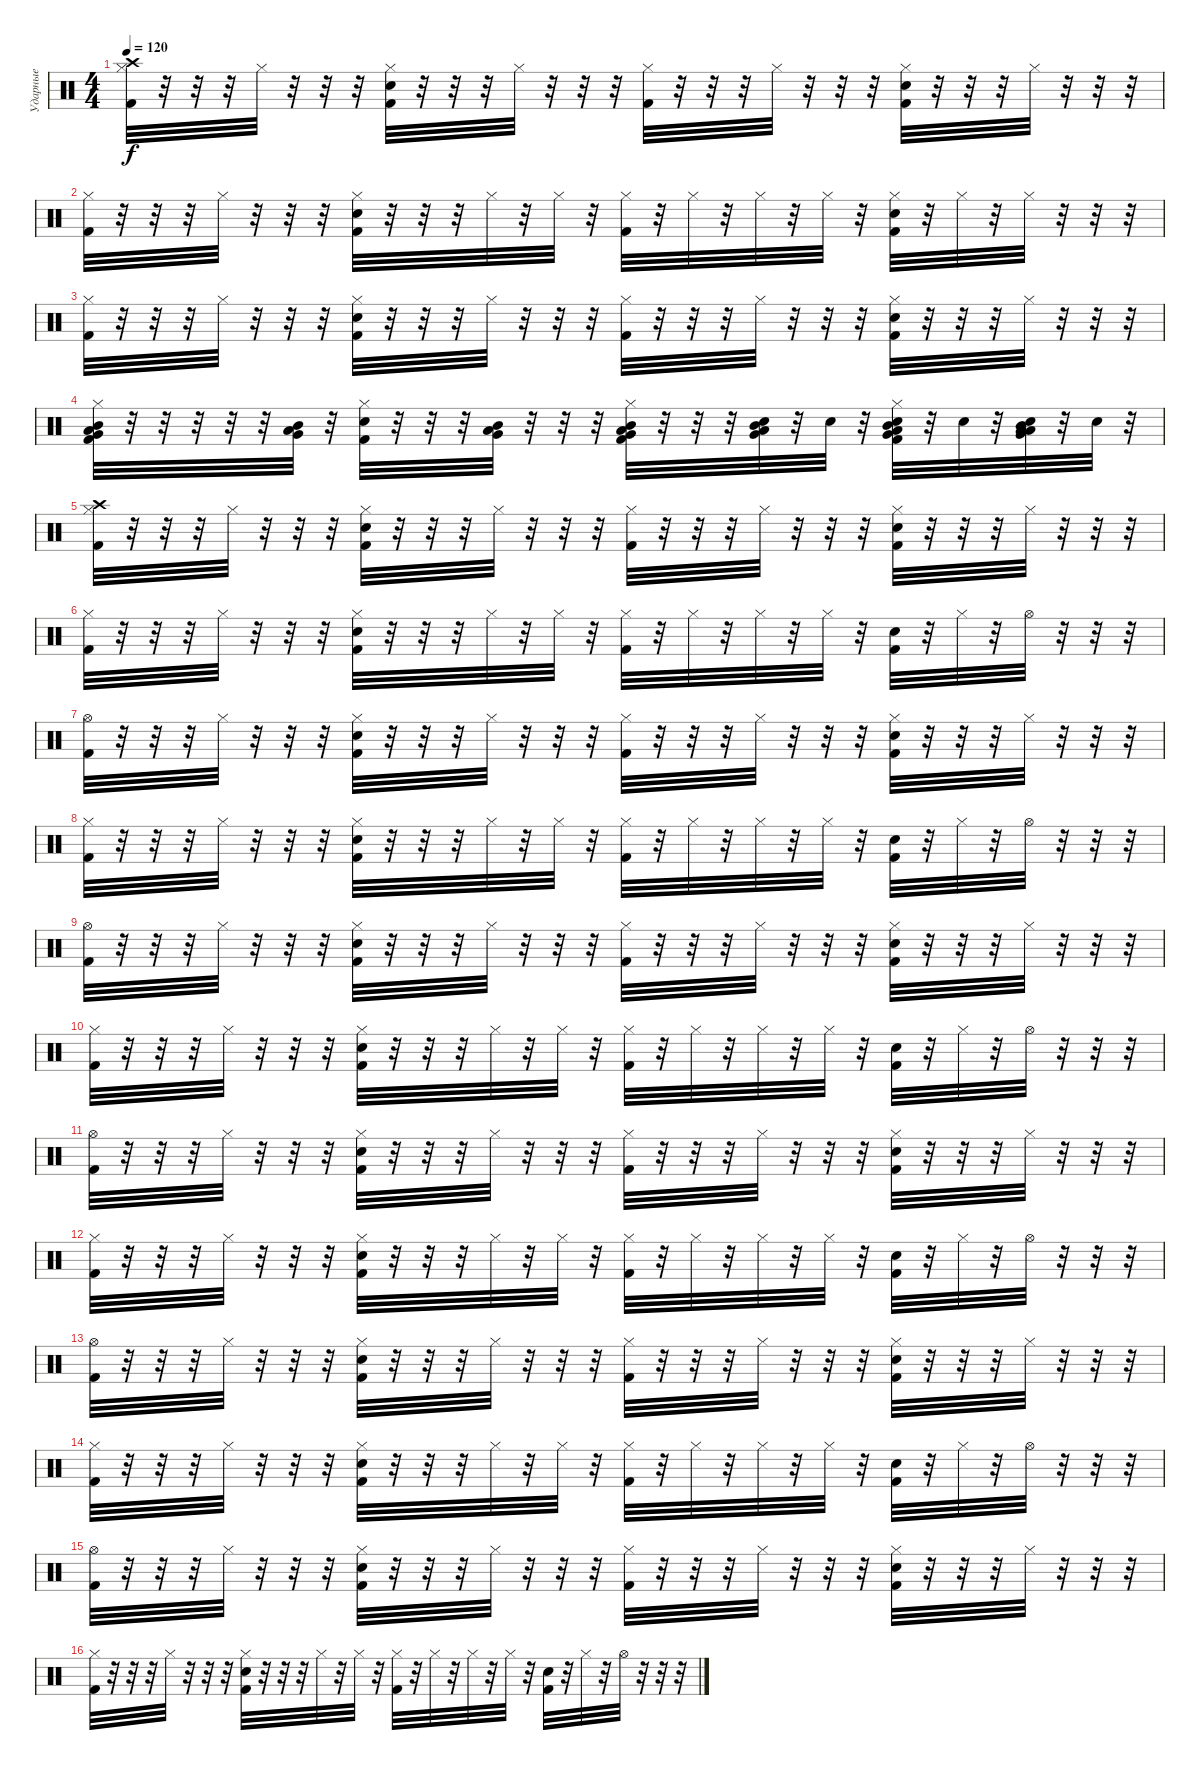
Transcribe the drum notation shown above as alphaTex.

\track ("Ударные" "Ударные") {instrument percussion}
\staff {score}
\articulation defaults
\ts (4 4)
\tempo 120
\clef neutral
\ks c
("Crash high (hit)" "Hi-Hat (closed)" "Kick (hit) 2").32{dy f} r.32 r.32 r.32 "Hi-Hat (closed)".32 r.32 r.32 r.32 ("Hi-Hat (closed)" "Kick (hit) 2" "Snare (hit) 2").32 r.32 r.32 r.32 "Hi-Hat (closed)".32 r.32 r.32 r.32 ("Hi-Hat (closed)" "Kick (hit) 2").32 r.32 r.32 r.32 "Hi-Hat (closed)".32 r.32 r.32 r.32 ("Snare (hit) 2" "Kick (hit) 2" "Hi-Hat (closed)").32 r.32 r.32 r.32 "Hi-Hat (closed)".32 r.32 r.32 r.32 |
("Hi-Hat (closed)" "Kick (hit) 2").32 r.32 r.32 r.32 "Hi-Hat (closed)".32 r.32 r.32 r.32 ("Hi-Hat (closed)" "Kick (hit) 2" "Snare (hit) 2").32 r.32 r.32 r.32 "Hi-Hat (closed)".32 r.32 "Hi-Hat (closed)".32 r.32 ("Hi-Hat (closed)" "Kick (hit) 2").32 r.32 "Hi-Hat (closed)".32 r.32 "Hi-Hat (closed)".32 r.32 "Hi-Hat (closed)".32 r.32 ("Snare (hit) 2" "Kick (hit) 2" "Hi-Hat (closed)").32 r.32 "Hi-Hat (closed)".32 r.32 "Hi-Hat (closed)".32 r.32 r.32 r.32 |
("Hi-Hat (closed)" "Kick (hit) 2").32 r.32 r.32 r.32 "Hi-Hat (closed)".32 r.32 r.32 r.32 ("Hi-Hat (closed)" "Kick (hit) 2" "Snare (hit) 2").32 r.32 r.32 r.32 "Hi-Hat (closed)".32 r.32 r.32 r.32 ("Hi-Hat (closed)" "Kick (hit) 2").32 r.32 r.32 r.32 "Hi-Hat (closed)".32 r.32 r.32 r.32 ("Snare (hit) 2" "Kick (hit) 2" "Hi-Hat (closed)").32 r.32 r.32 r.32 "Hi-Hat (closed)".32 r.32 r.32 r.32 |
("Very Low Tom (hit)" "Hi-Hat (closed)" "Kick (hit) 2" "Low Tom (hit)" "Mid Tom (hit)").32 r.32 r.32 r.32 r.32 r.32 ("Very Low Tom (hit)" "Low Tom (hit)" "Mid Tom (hit)").32 r.32 ("Hi-Hat (closed)" "Kick (hit) 2" "Snare (hit) 2").32 r.32 r.32 r.32 ("Very Low Tom (hit)" "Low Tom (hit)" "Mid Tom (hit)").32 r.32 r.32 r.32 ("Very Low Tom (hit)" "Hi-Hat (closed)" "Kick (hit) 2" "Mid Tom (hit)" "Low Tom (hit)").32 r.32 r.32 r.32 ("Very Low Tom (hit)" "Snare (hit) 2" "Mid Tom (hit)" "Low Tom (hit)").32 r.32 "Snare (hit) 2".32 r.32 ("Very Low Tom (hit)" "Snare (hit) 2" "Hi-Hat (closed)" "Kick (hit) 2" "Mid Tom (hit)" "Low Tom (hit)").32 r.32 "Snare (hit) 2".32 r.32 ("Very Low Tom (hit)" "Snare (hit) 2" "Mid Tom (hit)" "Low Tom (hit)" "Low Tom (hit)").32 r.32 "Snare (hit) 2".32 r.32 |
("Crash high (hit)" "Hi-Hat (closed)" "Kick (hit) 2").32 r.32 r.32 r.32 "Hi-Hat (closed)".32 r.32 r.32 r.32 ("Hi-Hat (closed)" "Kick (hit) 2" "Snare (hit) 2").32 r.32 r.32 r.32 "Hi-Hat (closed)".32 r.32 r.32 r.32 ("Hi-Hat (closed)" "Kick (hit) 2").32 r.32 r.32 r.32 "Hi-Hat (closed)".32 r.32 r.32 r.32 ("Snare (hit) 2" "Kick (hit) 2" "Hi-Hat (closed)").32 r.32 r.32 r.32 "Hi-Hat (closed)".32 r.32 r.32 r.32 |
("Hi-Hat (closed)" "Kick (hit) 2").32 r.32 r.32 r.32 "Hi-Hat (closed)".32 r.32 r.32 r.32 ("Hi-Hat (closed)" "Kick (hit) 2" "Snare (hit) 2").32 r.32 r.32 r.32 "Hi-Hat (closed)".32 r.32 "Hi-Hat (closed)".32 r.32 ("Hi-Hat (closed)" "Kick (hit) 2").32 r.32 "Hi-Hat (closed)".32 r.32 "Hi-Hat (closed)".32 r.32 "Hi-Hat (closed)".32 r.32 ("Snare (hit) 2" "Kick (hit) 2").32 r.32 "Hi-Hat (closed)".32 r.32 "Hi-Hat (open)".32 r.32 r.32 r.32 |
("Hi-Hat (open)" "Kick (hit) 2").32 r.32 r.32 r.32 "Hi-Hat (closed)".32 r.32 r.32 r.32 ("Hi-Hat (closed)" "Kick (hit) 2" "Snare (hit) 2").32 r.32 r.32 r.32 "Hi-Hat (closed)".32 r.32 r.32 r.32 ("Hi-Hat (closed)" "Kick (hit) 2").32 r.32 r.32 r.32 "Hi-Hat (closed)".32 r.32 r.32 r.32 ("Snare (hit) 2" "Kick (hit) 2" "Hi-Hat (closed)").32 r.32 r.32 r.32 "Hi-Hat (closed)".32 r.32 r.32 r.32 |
("Hi-Hat (closed)" "Kick (hit) 2").32 r.32 r.32 r.32 "Hi-Hat (closed)".32 r.32 r.32 r.32 ("Hi-Hat (closed)" "Kick (hit) 2" "Snare (hit) 2").32 r.32 r.32 r.32 "Hi-Hat (closed)".32 r.32 "Hi-Hat (closed)".32 r.32 ("Hi-Hat (closed)" "Kick (hit) 2").32 r.32 "Hi-Hat (closed)".32 r.32 "Hi-Hat (closed)".32 r.32 "Hi-Hat (closed)".32 r.32 ("Snare (hit) 2" "Kick (hit) 2").32 r.32 "Hi-Hat (closed)".32 r.32 "Hi-Hat (open)".32 r.32 r.32 r.32 |
("Hi-Hat (open)" "Kick (hit) 2").32 r.32 r.32 r.32 "Hi-Hat (closed)".32 r.32 r.32 r.32 ("Hi-Hat (closed)" "Kick (hit) 2" "Snare (hit) 2").32 r.32 r.32 r.32 "Hi-Hat (closed)".32 r.32 r.32 r.32 ("Hi-Hat (closed)" "Kick (hit) 2").32 r.32 r.32 r.32 "Hi-Hat (closed)".32 r.32 r.32 r.32 ("Snare (hit) 2" "Kick (hit) 2" "Hi-Hat (closed)").32 r.32 r.32 r.32 "Hi-Hat (closed)".32 r.32 r.32 r.32 |
("Hi-Hat (closed)" "Kick (hit) 2").32 r.32 r.32 r.32 "Hi-Hat (closed)".32 r.32 r.32 r.32 ("Hi-Hat (closed)" "Kick (hit) 2" "Snare (hit) 2").32 r.32 r.32 r.32 "Hi-Hat (closed)".32 r.32 "Hi-Hat (closed)".32 r.32 ("Hi-Hat (closed)" "Kick (hit) 2").32 r.32 "Hi-Hat (closed)".32 r.32 "Hi-Hat (closed)".32 r.32 "Hi-Hat (closed)".32 r.32 ("Snare (hit) 2" "Kick (hit) 2").32 r.32 "Hi-Hat (closed)".32 r.32 "Hi-Hat (open)".32 r.32 r.32 r.32 |
("Hi-Hat (open)" "Kick (hit) 2").32 r.32 r.32 r.32 "Hi-Hat (closed)".32 r.32 r.32 r.32 ("Hi-Hat (closed)" "Kick (hit) 2" "Snare (hit) 2").32 r.32 r.32 r.32 "Hi-Hat (closed)".32 r.32 r.32 r.32 ("Hi-Hat (closed)" "Kick (hit) 2").32 r.32 r.32 r.32 "Hi-Hat (closed)".32 r.32 r.32 r.32 ("Snare (hit) 2" "Kick (hit) 2" "Hi-Hat (closed)").32 r.32 r.32 r.32 "Hi-Hat (closed)".32 r.32 r.32 r.32 |
("Hi-Hat (closed)" "Kick (hit) 2").32 r.32 r.32 r.32 "Hi-Hat (closed)".32 r.32 r.32 r.32 ("Hi-Hat (closed)" "Kick (hit) 2" "Snare (hit) 2").32 r.32 r.32 r.32 "Hi-Hat (closed)".32 r.32 "Hi-Hat (closed)".32 r.32 ("Hi-Hat (closed)" "Kick (hit) 2").32 r.32 "Hi-Hat (closed)".32 r.32 "Hi-Hat (closed)".32 r.32 "Hi-Hat (closed)".32 r.32 ("Snare (hit) 2" "Kick (hit) 2").32 r.32 "Hi-Hat (closed)".32 r.32 "Hi-Hat (open)".32 r.32 r.32 r.32 |
("Hi-Hat (open)" "Kick (hit) 2").32 r.32 r.32 r.32 "Hi-Hat (closed)".32 r.32 r.32 r.32 ("Hi-Hat (closed)" "Kick (hit) 2" "Snare (hit) 2").32 r.32 r.32 r.32 "Hi-Hat (closed)".32 r.32 r.32 r.32 ("Hi-Hat (closed)" "Kick (hit) 2").32 r.32 r.32 r.32 "Hi-Hat (closed)".32 r.32 r.32 r.32 ("Snare (hit) 2" "Kick (hit) 2" "Hi-Hat (closed)").32 r.32 r.32 r.32 "Hi-Hat (closed)".32 r.32 r.32 r.32 |
("Hi-Hat (closed)" "Kick (hit) 2").32 r.32 r.32 r.32 "Hi-Hat (closed)".32 r.32 r.32 r.32 ("Hi-Hat (closed)" "Kick (hit) 2" "Snare (hit) 2").32 r.32 r.32 r.32 "Hi-Hat (closed)".32 r.32 "Hi-Hat (closed)".32 r.32 ("Hi-Hat (closed)" "Kick (hit) 2").32 r.32 "Hi-Hat (closed)".32 r.32 "Hi-Hat (closed)".32 r.32 "Hi-Hat (closed)".32 r.32 ("Snare (hit) 2" "Kick (hit) 2").32 r.32 "Hi-Hat (closed)".32 r.32 "Hi-Hat (open)".32 r.32 r.32 r.32 |
("Hi-Hat (open)" "Kick (hit) 2").32 r.32 r.32 r.32 "Hi-Hat (closed)".32 r.32 r.32 r.32 ("Hi-Hat (closed)" "Kick (hit) 2" "Snare (hit) 2").32 r.32 r.32 r.32 "Hi-Hat (closed)".32 r.32 r.32 r.32 ("Hi-Hat (closed)" "Kick (hit) 2").32 r.32 r.32 r.32 "Hi-Hat (closed)".32 r.32 r.32 r.32 ("Snare (hit) 2" "Kick (hit) 2" "Hi-Hat (closed)").32 r.32 r.32 r.32 "Hi-Hat (closed)".32 r.32 r.32 r.32 |
("Hi-Hat (closed)" "Kick (hit) 2").32 r.32 r.32 r.32 "Hi-Hat (closed)".32 r.32 r.32 r.32 ("Hi-Hat (closed)" "Kick (hit) 2" "Snare (hit) 2").32 r.32 r.32 r.32 "Hi-Hat (closed)".32 r.32 "Hi-Hat (closed)".32 r.32 ("Hi-Hat (closed)" "Kick (hit) 2").32 r.32 "Hi-Hat (closed)".32 r.32 "Hi-Hat (closed)".32 r.32 "Hi-Hat (closed)".32 r.32 ("Snare (hit) 2" "Kick (hit) 2").32 r.32 "Hi-Hat (closed)".32 r.32 "Hi-Hat (open)".32 r.32 r.32 r.32
